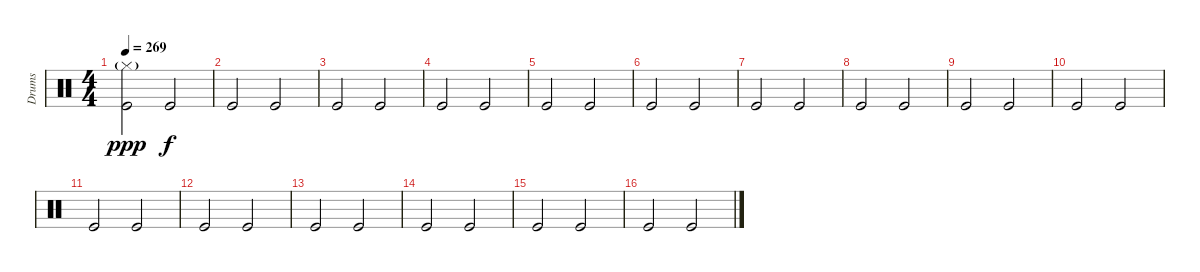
\track ("Drums" "Drums") {instrument percussion}
\staff {score}
\articulation defaults
\ts (4 4)
\tempo 269
\clef neutral
\ks c
("Hi-Hat (closed)"{g} "Kick (hit)").2{dy ppp} "Kick (hit)".2{dy f} |
"Kick (hit)".2 "Kick (hit)".2 |
"Kick (hit)".2 "Kick (hit)".2 |
"Kick (hit)".2 "Kick (hit)".2 |
"Kick (hit)".2 "Kick (hit)".2 |
"Kick (hit)".2 "Kick (hit)".2 |
"Kick (hit)".2 "Kick (hit)".2 |
"Kick (hit)".2 "Kick (hit)".2 |
"Kick (hit)".2 "Kick (hit)".2 |
"Kick (hit)".2 "Kick (hit)".2 |
"Kick (hit)".2 "Kick (hit)".2 |
"Kick (hit)".2 "Kick (hit)".2 |
"Kick (hit)".2 "Kick (hit)".2 |
"Kick (hit)".2 "Kick (hit)".2 |
"Kick (hit)".2 "Kick (hit)".2 |
"Kick (hit)".2 "Kick (hit)".2
